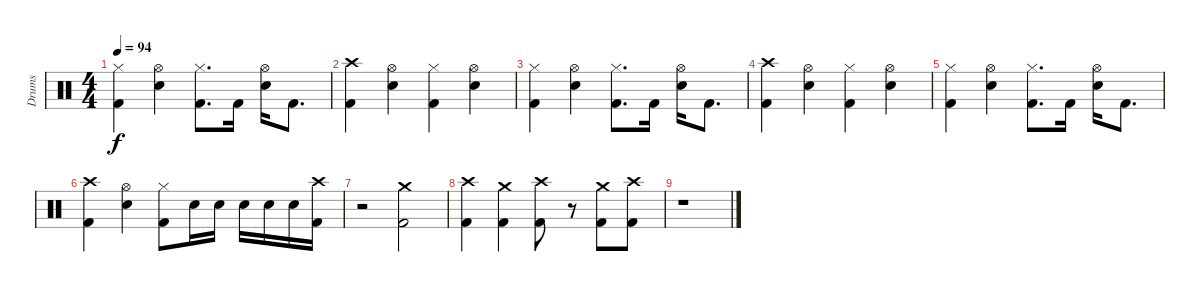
\track ("Drums" "Drums") {instrument percussion}
\staff {score}
\articulation defaults
\ts (4 4)
\tempo 94
\clef neutral
\ks c
("Hi-Hat (closed)" "Kick (hit) 2").4{dy f} ("Hi-Hat (open)" "Snare (hit) 2").4 ("Hi-Hat (closed)" "Kick (hit) 2").8{d} "Kick (hit) 2".16 ("Hi-Hat (open)" "Snare (hit) 2").16 "Kick (hit) 2".8{d} |
("Crash high (hit)" "Kick (hit) 2").4 ("Hi-Hat (open)" "Snare (hit) 2").4 ("Hi-Hat (closed)" "Kick (hit) 2").4 ("Hi-Hat (open)" "Snare (hit) 2").4 |
("Hi-Hat (closed)" "Kick (hit) 2").4 ("Hi-Hat (open)" "Snare (hit) 2").4 ("Hi-Hat (closed)" "Kick (hit) 2").8{d} "Kick (hit) 2".16 ("Hi-Hat (open)" "Snare (hit) 2").16 "Kick (hit) 2".8{d} |
("Crash high (hit)" "Kick (hit) 2").4 ("Hi-Hat (open)" "Snare (hit) 2").4 ("Hi-Hat (closed)" "Kick (hit) 2").4 ("Hi-Hat (open)" "Snare (hit) 2").4 |
("Hi-Hat (closed)" "Kick (hit) 2").4 ("Hi-Hat (open)" "Snare (hit) 2").4 ("Hi-Hat (closed)" "Kick (hit) 2").8{d} "Kick (hit) 2".16 ("Hi-Hat (open)" "Snare (hit) 2").16 "Kick (hit) 2".8{d} |
("Crash high (hit)" "Kick (hit) 2").4 ("Hi-Hat (open)" "Snare (hit) 2").4 ("Hi-Hat (closed)" "Kick (hit) 2").8 "Snare (hit) 2".16 "Snare (hit) 2".16 "Snare (hit) 2".16 "Snare (hit) 2".16 "Snare (hit) 2".16 ("Crash high (hit)" "Kick (hit) 2").16 |
r.2 ("Crash medium (hit)" "Kick (hit) 2").2 |
("Crash high (hit)" "Kick (hit) 2").4 ("Crash medium (hit)" "Kick (hit) 2").4 ("Crash high (hit)" "Kick (hit) 2").8 r.8 ("Crash medium (hit)" "Kick (hit) 2").8 ("Crash high (hit)" "Kick (hit) 2").8 |
r.1
